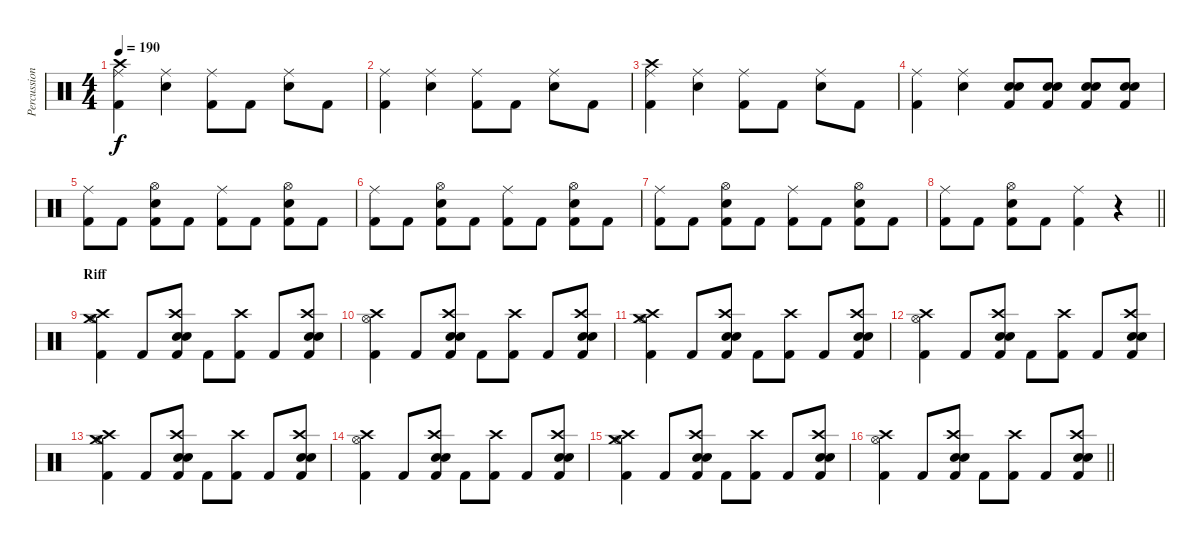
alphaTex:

\track ("Percussion" "Percussion") {instrument percussion}
\staff {score}
\articulation defaults
\ts (4 4)
\tempo 190
\clef neutral
\ks c
("Ride (middle)" "Kick (hit) 2" "Crash high (hit)").4{dy f} ("Ride (middle)" "Snare (hit) 2").4 ("Ride (middle)" "Kick (hit) 2").8 "Kick (hit) 2".8 ("Ride (middle)" "Snare (hit) 2").8 "Kick (hit) 2".8 |
("Ride (middle)" "Kick (hit) 2").4 ("Ride (middle)" "Snare (hit) 2").4 ("Ride (middle)" "Kick (hit) 2").8 "Kick (hit) 2".8 ("Ride (middle)" "Snare (hit) 2").8 "Kick (hit) 2".8 |
("Ride (middle)" "Kick (hit) 2" "Crash high (hit)").4 ("Ride (middle)" "Snare (hit) 2").4 ("Ride (middle)" "Kick (hit) 2").8 "Kick (hit) 2".8 ("Ride (middle)" "Snare (hit) 2").8 "Kick (hit) 2".8 |
("Ride (middle)" "Kick (hit) 2").4 ("Ride (middle)" "Snare (hit) 2").4 ("Electric Snare (hit)" "Snare (hit) 2" "Kick (hit) 2").8 ("Electric Snare (hit)" "Snare (hit) 2" "Kick (hit) 2").8 ("Electric Snare (hit)" "Snare (hit) 2" "Kick (hit) 2").8 ("Electric Snare (hit)" "Snare (hit) 2" "Kick (hit) 2").8 |
("Ride (middle)" "Kick (hit) 2").8 "Kick (hit) 2".8 ("Hi-Hat (open)" "Snare (hit) 2" "Kick (hit) 2").8 "Kick (hit) 2".8 ("Ride (middle)" "Kick (hit) 2").8 "Kick (hit) 2".8 ("Hi-Hat (open)" "Snare (hit) 2" "Kick (hit) 2").8 "Kick (hit) 2".8 |
("Ride (middle)" "Kick (hit) 2").8 "Kick (hit) 2".8 ("Hi-Hat (open)" "Snare (hit) 2" "Kick (hit) 2").8 "Kick (hit) 2".8 ("Ride (middle)" "Kick (hit) 2").8 "Kick (hit) 2".8 ("Hi-Hat (open)" "Snare (hit) 2" "Kick (hit) 2").8 "Kick (hit) 2".8 |
("Ride (middle)" "Kick (hit) 2").8 "Kick (hit) 2".8 ("Hi-Hat (open)" "Snare (hit) 2" "Kick (hit) 2").8 "Kick (hit) 2".8 ("Ride (middle)" "Kick (hit) 2").8 "Kick (hit) 2".8 ("Hi-Hat (open)" "Snare (hit) 2" "Kick (hit) 2").8 "Kick (hit) 2".8 |
\barLineRight lightlight
("Ride (middle)" "Kick (hit) 2").8 "Kick (hit) 2".8 ("Hi-Hat (open)" "Snare (hit) 2" "Kick (hit) 2").8 "Kick (hit) 2".8 ("Ride (middle)" "Kick (hit) 2").4 r.4 |
\section ("" "Riff")
("Hi-Hat (open)" "Kick (hit) 2" "Crash medium (hit)" "Crash high (hit)").4 "Kick (hit) 2".8 ("Electric Snare (hit)" "Snare (hit) 2" "Kick (hit) 2" "Crash high (hit)").8 "Kick (hit) 2".8 ("Kick (hit) 2" "Crash high (hit)").8 "Kick (hit) 2".8 ("Electric Snare (hit)" "Snare (hit) 2" "Kick (hit) 2" "Crash high (hit)").8 |
("Hi-Hat (open)" "Kick (hit) 2" "Crash high (hit)").4 "Kick (hit) 2".8 ("Electric Snare (hit)" "Snare (hit) 2" "Kick (hit) 2" "Crash high (hit)").8 "Kick (hit) 2".8 ("Kick (hit) 2" "Crash high (hit)").8 "Kick (hit) 2".8 ("Electric Snare (hit)" "Snare (hit) 2" "Kick (hit) 2" "Crash high (hit)").8 |
("Hi-Hat (open)" "Kick (hit) 2" "Crash medium (hit)" "Crash high (hit)").4 "Kick (hit) 2".8 ("Electric Snare (hit)" "Snare (hit) 2" "Kick (hit) 2" "Crash high (hit)").8 "Kick (hit) 2".8 ("Kick (hit) 2" "Crash high (hit)").8 "Kick (hit) 2".8 ("Electric Snare (hit)" "Snare (hit) 2" "Kick (hit) 2" "Crash high (hit)").8 |
("Hi-Hat (open)" "Kick (hit) 2" "Crash high (hit)").4 "Kick (hit) 2".8 ("Electric Snare (hit)" "Snare (hit) 2" "Kick (hit) 2" "Crash high (hit)").8 "Kick (hit) 2".8 ("Kick (hit) 2" "Crash high (hit)").8 "Kick (hit) 2".8 ("Electric Snare (hit)" "Snare (hit) 2" "Kick (hit) 2" "Crash high (hit)").8 |
("Hi-Hat (open)" "Kick (hit) 2" "Crash medium (hit)" "Crash high (hit)").4 "Kick (hit) 2".8 ("Electric Snare (hit)" "Snare (hit) 2" "Kick (hit) 2" "Crash high (hit)").8 "Kick (hit) 2".8 ("Kick (hit) 2" "Crash high (hit)").8 "Kick (hit) 2".8 ("Electric Snare (hit)" "Snare (hit) 2" "Kick (hit) 2" "Crash high (hit)").8 |
("Hi-Hat (open)" "Kick (hit) 2" "Crash high (hit)").4 "Kick (hit) 2".8 ("Electric Snare (hit)" "Snare (hit) 2" "Kick (hit) 2" "Crash high (hit)").8 "Kick (hit) 2".8 ("Kick (hit) 2" "Crash high (hit)").8 "Kick (hit) 2".8 ("Electric Snare (hit)" "Snare (hit) 2" "Kick (hit) 2" "Crash high (hit)").8 |
("Hi-Hat (open)" "Kick (hit) 2" "Crash medium (hit)" "Crash high (hit)").4 "Kick (hit) 2".8 ("Electric Snare (hit)" "Snare (hit) 2" "Kick (hit) 2" "Crash high (hit)").8 "Kick (hit) 2".8 ("Kick (hit) 2" "Crash high (hit)").8 "Kick (hit) 2".8 ("Electric Snare (hit)" "Snare (hit) 2" "Kick (hit) 2" "Crash high (hit)").8 |
\barLineRight lightlight
("Hi-Hat (open)" "Kick (hit) 2" "Crash high (hit)").4 "Kick (hit) 2".8 ("Electric Snare (hit)" "Snare (hit) 2" "Kick (hit) 2" "Crash high (hit)").8 "Kick (hit) 2".8 ("Kick (hit) 2" "Crash high (hit)").8 "Kick (hit) 2".8 ("Electric Snare (hit)" "Snare (hit) 2" "Kick (hit) 2" "Crash high (hit)").8
